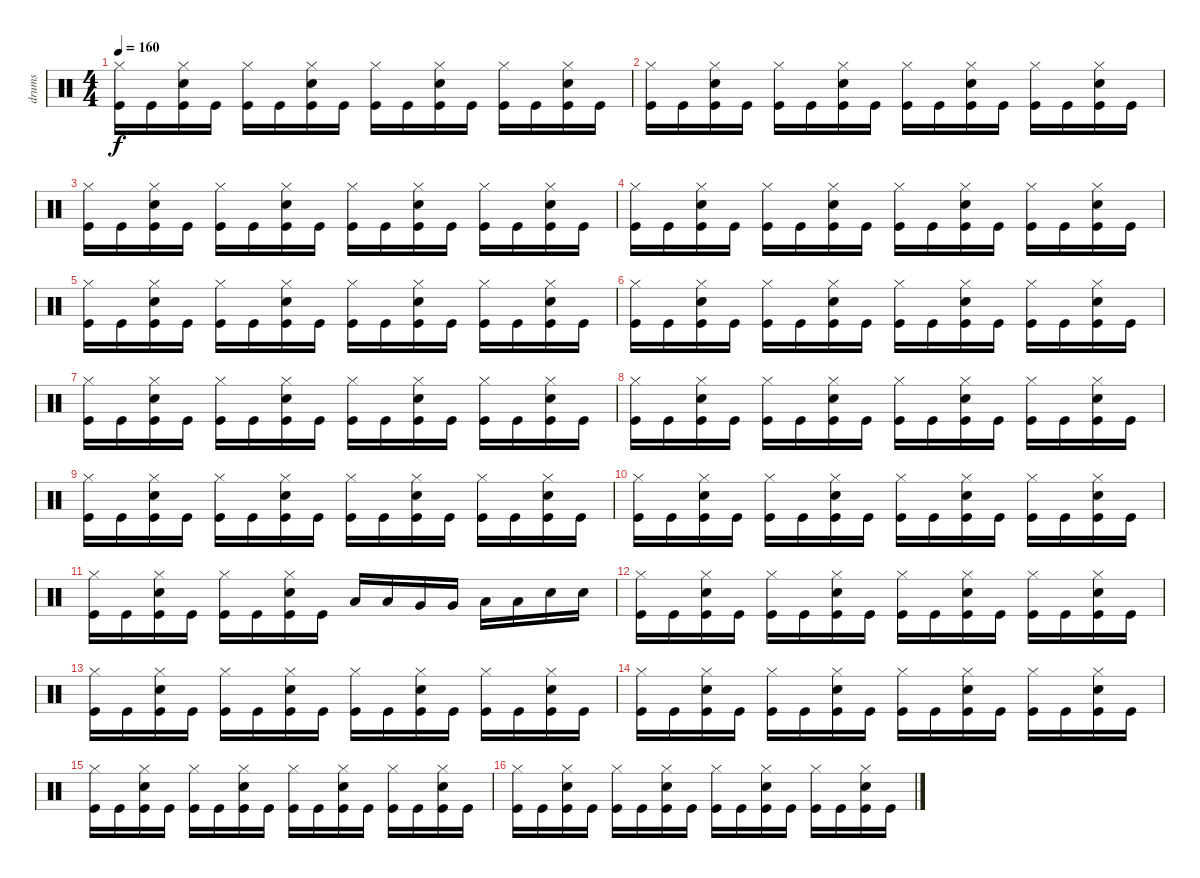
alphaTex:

\track ("drums" "drums") {instrument percussion}
\staff {score}
\articulation defaults
\ts (4 4)
\tempo 160
\clef neutral
\ks c
("Kick (hit)" "Hi-Hat (closed)").16{dy f} "Kick (hit)".16 ("Kick (hit)" "Hi-Hat (closed)" "Snare (hit) 2").16 "Kick (hit)".16 ("Kick (hit)" "Hi-Hat (closed)").16 "Kick (hit)".16 ("Kick (hit)" "Hi-Hat (closed)" "Snare (hit) 2").16 "Kick (hit)".16 ("Kick (hit)" "Hi-Hat (closed)").16 "Kick (hit)".16 ("Kick (hit)" "Hi-Hat (closed)" "Snare (hit) 2").16 "Kick (hit)".16 ("Kick (hit)" "Hi-Hat (closed)").16 "Kick (hit)".16 ("Kick (hit)" "Hi-Hat (closed)" "Snare (hit) 2").16 "Kick (hit)".16 |
("Kick (hit)" "Hi-Hat (closed)").16 "Kick (hit)".16 ("Kick (hit)" "Hi-Hat (closed)" "Snare (hit) 2").16 "Kick (hit)".16 ("Kick (hit)" "Hi-Hat (closed)").16 "Kick (hit)".16 ("Kick (hit)" "Hi-Hat (closed)" "Snare (hit) 2").16 "Kick (hit)".16 ("Kick (hit)" "Hi-Hat (closed)").16 "Kick (hit)".16 ("Kick (hit)" "Hi-Hat (closed)" "Snare (hit) 2").16 "Kick (hit)".16 ("Kick (hit)" "Hi-Hat (closed)").16 "Kick (hit)".16 ("Kick (hit)" "Hi-Hat (closed)" "Snare (hit) 2").16 "Kick (hit)".16 |
("Kick (hit)" "Hi-Hat (closed)").16 "Kick (hit)".16 ("Kick (hit)" "Hi-Hat (closed)" "Snare (hit) 2").16 "Kick (hit)".16 ("Kick (hit)" "Hi-Hat (closed)").16 "Kick (hit)".16 ("Kick (hit)" "Hi-Hat (closed)" "Snare (hit) 2").16 "Kick (hit)".16 ("Kick (hit)" "Hi-Hat (closed)").16 "Kick (hit)".16 ("Kick (hit)" "Hi-Hat (closed)" "Snare (hit) 2").16 "Kick (hit)".16 ("Kick (hit)" "Hi-Hat (closed)").16 "Kick (hit)".16 ("Kick (hit)" "Hi-Hat (closed)" "Snare (hit) 2").16 "Kick (hit)".16 |
("Kick (hit)" "Hi-Hat (closed)").16 "Kick (hit)".16 ("Kick (hit)" "Hi-Hat (closed)" "Snare (hit) 2").16 "Kick (hit)".16 ("Kick (hit)" "Hi-Hat (closed)").16 "Kick (hit)".16 ("Kick (hit)" "Hi-Hat (closed)" "Snare (hit) 2").16 "Kick (hit)".16 ("Kick (hit)" "Hi-Hat (closed)").16 "Kick (hit)".16 ("Kick (hit)" "Hi-Hat (closed)" "Snare (hit) 2").16 "Kick (hit)".16 ("Kick (hit)" "Hi-Hat (closed)").16 "Kick (hit)".16 ("Kick (hit)" "Hi-Hat (closed)" "Snare (hit) 2").16 "Kick (hit)".16 |
("Kick (hit)" "Hi-Hat (closed)").16 "Kick (hit)".16 ("Kick (hit)" "Hi-Hat (closed)" "Snare (hit) 2").16 "Kick (hit)".16 ("Kick (hit)" "Hi-Hat (closed)").16 "Kick (hit)".16 ("Kick (hit)" "Hi-Hat (closed)" "Snare (hit) 2").16 "Kick (hit)".16 ("Kick (hit)" "Hi-Hat (closed)").16 "Kick (hit)".16 ("Kick (hit)" "Hi-Hat (closed)" "Snare (hit) 2").16 "Kick (hit)".16 ("Kick (hit)" "Hi-Hat (closed)").16 "Kick (hit)".16 ("Kick (hit)" "Hi-Hat (closed)" "Snare (hit) 2").16 "Kick (hit)".16 |
("Kick (hit)" "Hi-Hat (closed)").16 "Kick (hit)".16 ("Kick (hit)" "Hi-Hat (closed)" "Snare (hit) 2").16 "Kick (hit)".16 ("Kick (hit)" "Hi-Hat (closed)").16 "Kick (hit)".16 ("Kick (hit)" "Hi-Hat (closed)" "Snare (hit) 2").16 "Kick (hit)".16 ("Kick (hit)" "Hi-Hat (closed)").16 "Kick (hit)".16 ("Kick (hit)" "Hi-Hat (closed)" "Snare (hit) 2").16 "Kick (hit)".16 ("Kick (hit)" "Hi-Hat (closed)").16 "Kick (hit)".16 ("Kick (hit)" "Hi-Hat (closed)" "Snare (hit) 2").16 "Kick (hit)".16 |
("Kick (hit)" "Hi-Hat (closed)").16 "Kick (hit)".16 ("Kick (hit)" "Hi-Hat (closed)" "Snare (hit) 2").16 "Kick (hit)".16 ("Kick (hit)" "Hi-Hat (closed)").16 "Kick (hit)".16 ("Kick (hit)" "Hi-Hat (closed)" "Snare (hit) 2").16 "Kick (hit)".16 ("Kick (hit)" "Hi-Hat (closed)").16 "Kick (hit)".16 ("Kick (hit)" "Hi-Hat (closed)" "Snare (hit) 2").16 "Kick (hit)".16 ("Kick (hit)" "Hi-Hat (closed)").16 "Kick (hit)".16 ("Kick (hit)" "Hi-Hat (closed)" "Snare (hit) 2").16 "Kick (hit)".16 |
("Kick (hit)" "Hi-Hat (closed)").16 "Kick (hit)".16 ("Kick (hit)" "Hi-Hat (closed)" "Snare (hit) 2").16 "Kick (hit)".16 ("Kick (hit)" "Hi-Hat (closed)").16 "Kick (hit)".16 ("Kick (hit)" "Hi-Hat (closed)" "Snare (hit) 2").16 "Kick (hit)".16 ("Kick (hit)" "Hi-Hat (closed)").16 "Kick (hit)".16 ("Kick (hit)" "Hi-Hat (closed)" "Snare (hit) 2").16 "Kick (hit)".16 ("Kick (hit)" "Hi-Hat (closed)").16 "Kick (hit)".16 ("Kick (hit)" "Hi-Hat (closed)" "Snare (hit) 2").16 "Kick (hit)".16 |
("Kick (hit)" "Hi-Hat (closed)").16 "Kick (hit)".16 ("Kick (hit)" "Hi-Hat (closed)" "Snare (hit) 2").16 "Kick (hit)".16 ("Kick (hit)" "Hi-Hat (closed)").16 "Kick (hit)".16 ("Kick (hit)" "Hi-Hat (closed)" "Snare (hit) 2").16 "Kick (hit)".16 ("Kick (hit)" "Hi-Hat (closed)").16 "Kick (hit)".16 ("Kick (hit)" "Hi-Hat (closed)" "Snare (hit) 2").16 "Kick (hit)".16 ("Kick (hit)" "Hi-Hat (closed)").16 "Kick (hit)".16 ("Kick (hit)" "Hi-Hat (closed)" "Snare (hit) 2").16 "Kick (hit)".16 |
("Kick (hit)" "Hi-Hat (closed)").16 "Kick (hit)".16 ("Kick (hit)" "Hi-Hat (closed)" "Snare (hit) 2").16 "Kick (hit)".16 ("Kick (hit)" "Hi-Hat (closed)").16 "Kick (hit)".16 ("Kick (hit)" "Hi-Hat (closed)" "Snare (hit) 2").16 "Kick (hit)".16 ("Kick (hit)" "Hi-Hat (closed)").16 "Kick (hit)".16 ("Kick (hit)" "Hi-Hat (closed)" "Snare (hit) 2").16 "Kick (hit)".16 ("Kick (hit)" "Hi-Hat (closed)").16 "Kick (hit)".16 ("Kick (hit)" "Hi-Hat (closed)" "Snare (hit) 2").16 "Kick (hit)".16 |
("Kick (hit)" "Hi-Hat (closed)").16 "Kick (hit)".16 ("Kick (hit)" "Hi-Hat (closed)" "Snare (hit) 2").16 "Kick (hit)".16 ("Kick (hit)" "Hi-Hat (closed)").16 "Kick (hit)".16 ("Kick (hit)" "Hi-Hat (closed)" "Snare (hit) 2").16 "Kick (hit)".16 "Low Tom (hit)".16 "Low Tom (hit)".16 "Very Low Tom (hit)".16 "Very Low Tom (hit)".16 "Low Floor Tom (hit)".16 "Low Floor Tom (hit)".16 "Snare (hit) 2".16 "Snare (hit) 2".16 |
("Kick (hit)" "Hi-Hat (closed)").16 "Kick (hit)".16 ("Kick (hit)" "Hi-Hat (closed)" "Snare (hit) 2").16 "Kick (hit)".16 ("Kick (hit)" "Hi-Hat (closed)").16 "Kick (hit)".16 ("Kick (hit)" "Hi-Hat (closed)" "Snare (hit) 2").16 "Kick (hit)".16 ("Kick (hit)" "Hi-Hat (closed)").16 "Kick (hit)".16 ("Kick (hit)" "Hi-Hat (closed)" "Snare (hit) 2").16 "Kick (hit)".16 ("Kick (hit)" "Hi-Hat (closed)").16 "Kick (hit)".16 ("Kick (hit)" "Hi-Hat (closed)" "Snare (hit) 2").16 "Kick (hit)".16 |
("Kick (hit)" "Hi-Hat (closed)").16 "Kick (hit)".16 ("Kick (hit)" "Hi-Hat (closed)" "Snare (hit) 2").16 "Kick (hit)".16 ("Kick (hit)" "Hi-Hat (closed)").16 "Kick (hit)".16 ("Kick (hit)" "Hi-Hat (closed)" "Snare (hit) 2").16 "Kick (hit)".16 ("Kick (hit)" "Hi-Hat (closed)").16 "Kick (hit)".16 ("Kick (hit)" "Hi-Hat (closed)" "Snare (hit) 2").16 "Kick (hit)".16 ("Kick (hit)" "Hi-Hat (closed)").16 "Kick (hit)".16 ("Kick (hit)" "Hi-Hat (closed)" "Snare (hit) 2").16 "Kick (hit)".16 |
("Kick (hit)" "Hi-Hat (closed)").16 "Kick (hit)".16 ("Kick (hit)" "Hi-Hat (closed)" "Snare (hit) 2").16 "Kick (hit)".16 ("Kick (hit)" "Hi-Hat (closed)").16 "Kick (hit)".16 ("Kick (hit)" "Hi-Hat (closed)" "Snare (hit) 2").16 "Kick (hit)".16 ("Kick (hit)" "Hi-Hat (closed)").16 "Kick (hit)".16 ("Kick (hit)" "Hi-Hat (closed)" "Snare (hit) 2").16 "Kick (hit)".16 ("Kick (hit)" "Hi-Hat (closed)").16 "Kick (hit)".16 ("Kick (hit)" "Hi-Hat (closed)" "Snare (hit) 2").16 "Kick (hit)".16 |
("Kick (hit)" "Hi-Hat (closed)").16 "Kick (hit)".16 ("Kick (hit)" "Hi-Hat (closed)" "Snare (hit) 2").16 "Kick (hit)".16 ("Kick (hit)" "Hi-Hat (closed)").16 "Kick (hit)".16 ("Kick (hit)" "Hi-Hat (closed)" "Snare (hit) 2").16 "Kick (hit)".16 ("Kick (hit)" "Hi-Hat (closed)").16 "Kick (hit)".16 ("Kick (hit)" "Hi-Hat (closed)" "Snare (hit) 2").16 "Kick (hit)".16 ("Kick (hit)" "Hi-Hat (closed)").16 "Kick (hit)".16 ("Kick (hit)" "Hi-Hat (closed)" "Snare (hit) 2").16 "Kick (hit)".16 |
("Kick (hit)" "Hi-Hat (closed)").16 "Kick (hit)".16 ("Kick (hit)" "Hi-Hat (closed)" "Snare (hit) 2").16 "Kick (hit)".16 ("Kick (hit)" "Hi-Hat (closed)").16 "Kick (hit)".16 ("Kick (hit)" "Hi-Hat (closed)" "Snare (hit) 2").16 "Kick (hit)".16 ("Kick (hit)" "Hi-Hat (closed)").16 "Kick (hit)".16 ("Kick (hit)" "Hi-Hat (closed)" "Snare (hit) 2").16 "Kick (hit)".16 ("Kick (hit)" "Hi-Hat (closed)").16 "Kick (hit)".16 ("Kick (hit)" "Hi-Hat (closed)" "Snare (hit) 2").16 "Kick (hit)".16
